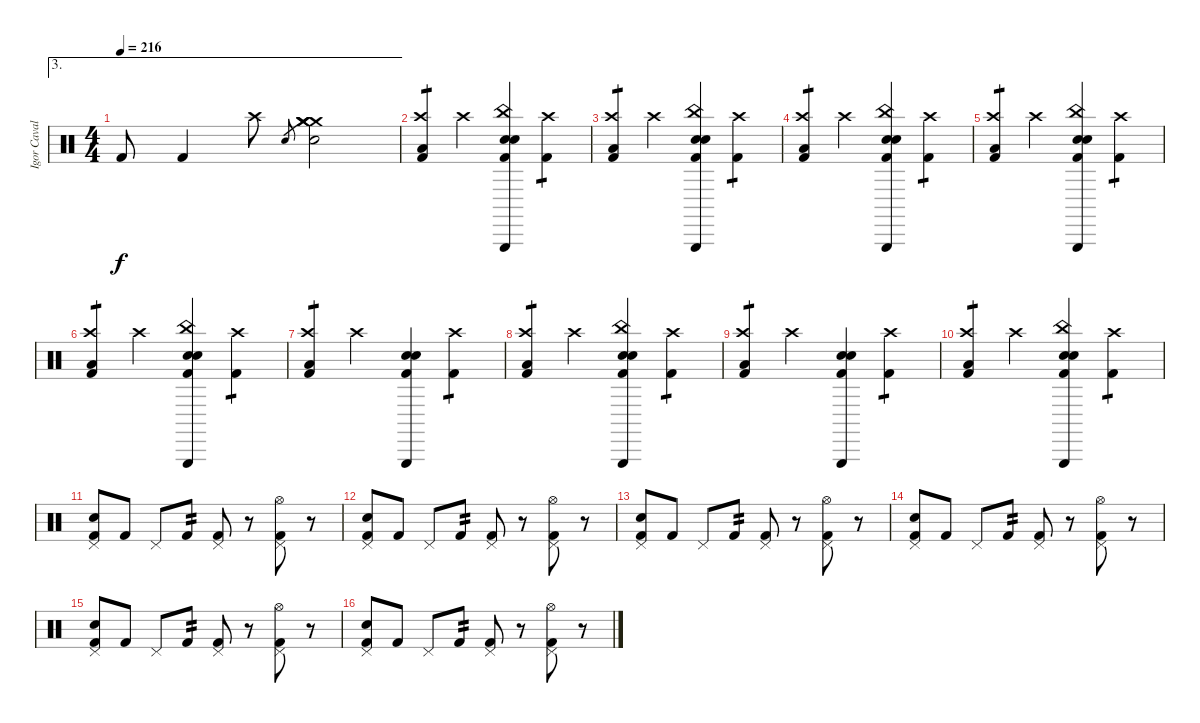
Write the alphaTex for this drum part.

\track ("Igor Cavalera" "Igor Caval") {instrument percussion}
\staff {score}
\articulation defaults
\ae 3
\ts (4 4)
\tempo 216
\clef neutral
\ks c "Kick (hit) 2".8{dy f} "Kick (hit) 2".4 "Crash high (hit)".8 "Snare (hit) 2".8{gr}
("Crash medium (hit)" "Crash medium (hit)" "Crash medium (hit)" "Crash medium (hit)" "Snare (hit) 2").2 |
("Crash high (hit)" "Low Floor Tom (hit)" "Kick (hit) 2").4{tp 1} "Crash high (hit)".4 ("China (hit)" "Metronome (bell)" "Triangle (hit)" "Kick (hit) 2" "Snare (hit) 2").4 ("Crash high (hit)" "Kick (hit) 2").4{tp 1} |
("Crash high (hit)" "Low Floor Tom (hit)" "Kick (hit) 2").4{tp 1} "Crash high (hit)".4 ("China (hit)" "Metronome (bell)" "Triangle (hit)" "Kick (hit) 2" "Snare (hit) 2").4 ("Crash high (hit)" "Kick (hit) 2").4{tp 1} |
("Crash high (hit)" "Low Floor Tom (hit)" "Kick (hit) 2").4{tp 1} "Crash high (hit)".4 ("China (hit)" "Metronome (bell)" "Triangle (hit)" "Kick (hit) 2" "Snare (hit) 2").4 ("Crash high (hit)" "Kick (hit) 2").4{tp 1} |
("Crash high (hit)" "Low Floor Tom (hit)" "Kick (hit) 2").4{tp 1} "Crash high (hit)".4 ("China (hit)" "Metronome (bell)" "Triangle (hit)" "Kick (hit) 2" "Snare (hit) 2").4 ("Crash high (hit)" "Kick (hit) 2").4{tp 1} |
("Crash high (hit)" "Low Floor Tom (hit)" "Kick (hit) 2").4{tp 1} "Crash high (hit)".4 ("China (hit)" "Metronome (bell)" "Triangle (hit)" "Kick (hit) 2" "Snare (hit) 2").4 ("Crash high (hit)" "Kick (hit) 2").4{tp 1} |
("Crash high (hit)" "Low Floor Tom (hit)" "Kick (hit) 2").4{tp 1} "Crash high (hit)".4 ("Metronome (bell)" "Triangle (hit)" "Kick (hit) 2" "Snare (hit) 2").4 ("Crash high (hit)" "Kick (hit) 2").4{tp 1} |
("Crash high (hit)" "Low Floor Tom (hit)" "Kick (hit) 2").4{tp 1} "Crash high (hit)".4 ("China (hit)" "Metronome (bell)" "Triangle (hit)" "Kick (hit) 2" "Snare (hit) 2").4 ("Crash high (hit)" "Kick (hit) 2").4{tp 1} |
("Crash high (hit)" "Low Floor Tom (hit)" "Kick (hit) 2").4{tp 1} "Crash high (hit)".4 ("Metronome (bell)" "Triangle (hit)" "Kick (hit) 2" "Snare (hit) 2").4 ("Crash high (hit)" "Kick (hit) 2").4{tp 1} |
("Crash high (hit)" "Low Floor Tom (hit)" "Kick (hit) 2").4{tp 1} "Crash high (hit)".4 ("China (hit)" "Metronome (bell)" "Triangle (hit)" "Kick (hit) 2" "Snare (hit) 2").4 ("Crash high (hit)" "Kick (hit) 2").4{tp 1} |
("Snare (hit) 2" "Pedal Hi-Hat (hit)" "Kick (hit) 2").8 "Kick (hit) 2".8 "Pedal Hi-Hat (hit)".8 "Kick (hit) 2".8{tp 2} ("Pedal Hi-Hat (hit)" "Kick (hit) 2").8 r.8 ("Hi-Hat (open)" "Pedal Hi-Hat (hit)" "Kick (hit) 2").8 r.8 |
("Snare (hit) 2" "Pedal Hi-Hat (hit)" "Kick (hit) 2").8 "Kick (hit) 2".8 "Pedal Hi-Hat (hit)".8 "Kick (hit) 2".8{tp 2} ("Pedal Hi-Hat (hit)" "Kick (hit) 2").8 r.8 ("Hi-Hat (open)" "Pedal Hi-Hat (hit)" "Kick (hit) 2").8 r.8 |
("Snare (hit) 2" "Pedal Hi-Hat (hit)" "Kick (hit) 2").8 "Kick (hit) 2".8 "Pedal Hi-Hat (hit)".8 "Kick (hit) 2".8{tp 2} ("Pedal Hi-Hat (hit)" "Kick (hit) 2").8 r.8 ("Hi-Hat (open)" "Pedal Hi-Hat (hit)" "Kick (hit) 2").8 r.8 |
("Snare (hit) 2" "Pedal Hi-Hat (hit)" "Kick (hit) 2").8 "Kick (hit) 2".8 "Pedal Hi-Hat (hit)".8 "Kick (hit) 2".8{tp 2} ("Pedal Hi-Hat (hit)" "Kick (hit) 2").8 r.8 ("Hi-Hat (open)" "Pedal Hi-Hat (hit)" "Kick (hit) 2").8 r.8 |
("Snare (hit) 2" "Pedal Hi-Hat (hit)" "Kick (hit) 2").8 "Kick (hit) 2".8 "Pedal Hi-Hat (hit)".8 "Kick (hit) 2".8{tp 2} ("Pedal Hi-Hat (hit)" "Kick (hit) 2").8 r.8 ("Hi-Hat (open)" "Pedal Hi-Hat (hit)" "Kick (hit) 2").8 r.8 |
("Snare (hit) 2" "Pedal Hi-Hat (hit)" "Kick (hit) 2").8 "Kick (hit) 2".8 "Pedal Hi-Hat (hit)".8 "Kick (hit) 2".8{tp 2} ("Pedal Hi-Hat (hit)" "Kick (hit) 2").8 r.8 ("Hi-Hat (open)" "Pedal Hi-Hat (hit)" "Kick (hit) 2").8 r.8
